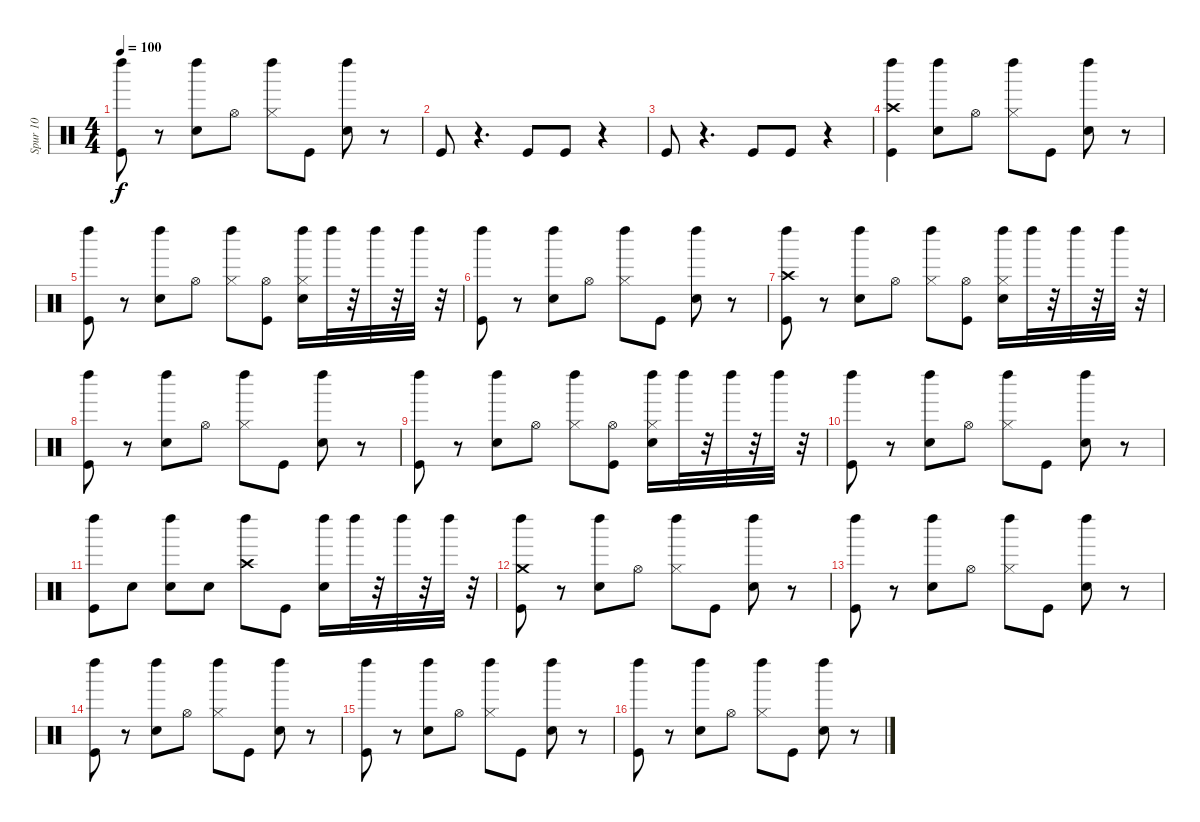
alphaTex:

\track ("Spur 10" "Spur 10") {instrument percussion}
\staff {score}
\articulation defaults
\ts (4 4)
\tempo 100
\clef neutral
\ks c
("Kick (hit)" "Left Maraca (hit)").8{dy f} r.8 ("Snare (hit) 2" "Left Maraca (hit)").8 "Hi-Hat (open)".8 ("Hi-Hat (closed)" "Left Maraca (hit)").8 "Kick (hit)".8 ("Snare (hit) 2" "Left Maraca (hit)").8 r.8 |
"Kick (hit)".8 r.4{d} "Kick (hit)".8 "Kick (hit)".8 r.4 |
"Kick (hit)".8 r.4{d} "Kick (hit)".8 "Kick (hit)".8 r.4 |
("Crash high (hit)" "Kick (hit)" "Left Maraca (hit)").4 ("Snare (hit) 2" "Left Maraca (hit)").8 "Hi-Hat (open)".8 ("Hi-Hat (closed)" "Left Maraca (hit)").8 "Kick (hit)".8 ("Snare (hit) 2" "Left Maraca (hit)").8 r.8 |
("Kick (hit)" "Left Maraca (hit)").8 r.8 ("Snare (hit) 2" "Left Maraca (hit)").8 "Hi-Hat (open)".8 ("Hi-Hat (closed)" "Left Maraca (hit)").8 ("Hi-Hat (open)" "Kick (hit)").8 ("Hi-Hat (closed)" "Snare (hit) 2" "Left Maraca (hit)").16 "Left Maraca (hit)".32 r.32 "Left Maraca (hit)".32 r.32 "Left Maraca (hit)".32 r.32 |
("Kick (hit)" "Left Maraca (hit)").8 r.8 ("Snare (hit) 2" "Left Maraca (hit)").8 "Hi-Hat (open)".8 ("Hi-Hat (closed)" "Left Maraca (hit)").8 "Kick (hit)".8 ("Snare (hit) 2" "Left Maraca (hit)").8 r.8 |
("Crash high (hit)" "Kick (hit)" "Left Maraca (hit)").8 r.8 ("Snare (hit) 2" "Left Maraca (hit)").8 "Hi-Hat (open)".8 ("Hi-Hat (closed)" "Left Maraca (hit)").8 ("Hi-Hat (open)" "Kick (hit)").8 ("Hi-Hat (closed)" "Snare (hit) 2" "Left Maraca (hit)").16 "Left Maraca (hit)".32 r.32 "Left Maraca (hit)".32 r.32 "Left Maraca (hit)".32 r.32 |
("Kick (hit)" "Left Maraca (hit)").8 r.8 ("Snare (hit) 2" "Left Maraca (hit)").8 "Hi-Hat (open)".8 ("Hi-Hat (closed)" "Left Maraca (hit)").8 "Kick (hit)".8 ("Snare (hit) 2" "Left Maraca (hit)").8 r.8 |
("Kick (hit)" "Left Maraca (hit)").8 r.8 ("Snare (hit) 2" "Left Maraca (hit)").8 "Hi-Hat (open)".8 ("Hi-Hat (closed)" "Left Maraca (hit)").8 ("Hi-Hat (open)" "Kick (hit)").8 ("Hi-Hat (closed)" "Snare (hit) 2" "Left Maraca (hit)").16 "Left Maraca (hit)".32 r.32 "Left Maraca (hit)".32 r.32 "Left Maraca (hit)".32 r.32 |
("Kick (hit)" "Left Maraca (hit)").8 r.8 ("Snare (hit) 2" "Left Maraca (hit)").8 "Hi-Hat (open)".8 ("Hi-Hat (closed)" "Left Maraca (hit)").8 "Kick (hit)".8 ("Snare (hit) 2" "Left Maraca (hit)").8 r.8 |
("Kick (hit)" "Left Maraca (hit)").8 "Electric Snare (hit)".8 ("Snare (hit) 2" "Left Maraca (hit)").8 "Snare (hit) 2".8 ("Crash high (hit)" "Left Maraca (hit)").8 "Kick (hit)".8 ("Snare (hit) 2" "Left Maraca (hit)").16 "Left Maraca (hit)".32 r.32 "Left Maraca (hit)".32 r.32 "Left Maraca (hit)".32 r.32 |
("Crash medium (hit)" "Kick (hit)" "Left Maraca (hit)").8 r.8 ("Snare (hit) 2" "Left Maraca (hit)").8 "Hi-Hat (open)".8 ("Hi-Hat (closed)" "Left Maraca (hit)").8 "Kick (hit)".8 ("Snare (hit) 2" "Left Maraca (hit)").8 r.8 |
("Kick (hit)" "Left Maraca (hit)").8 r.8 ("Snare (hit) 2" "Left Maraca (hit)").8 "Hi-Hat (open)".8 ("Hi-Hat (closed)" "Left Maraca (hit)").8 "Kick (hit)".8 ("Snare (hit) 2" "Left Maraca (hit)").8 r.8 |
("Kick (hit)" "Left Maraca (hit)").8 r.8 ("Snare (hit) 2" "Left Maraca (hit)").8 "Hi-Hat (open)".8 ("Hi-Hat (closed)" "Left Maraca (hit)").8 "Kick (hit)".8 ("Snare (hit) 2" "Left Maraca (hit)").8 r.8 |
("Kick (hit)" "Left Maraca (hit)").8 r.8 ("Snare (hit) 2" "Left Maraca (hit)").8 "Hi-Hat (open)".8 ("Hi-Hat (closed)" "Left Maraca (hit)").8 "Kick (hit)".8 ("Snare (hit) 2" "Left Maraca (hit)").8 r.8 |
("Kick (hit)" "Left Maraca (hit)").8 r.8 ("Snare (hit) 2" "Left Maraca (hit)").8 "Hi-Hat (open)".8 ("Hi-Hat (closed)" "Left Maraca (hit)").8 "Kick (hit)".8 ("Snare (hit) 2" "Left Maraca (hit)").8 r.8
